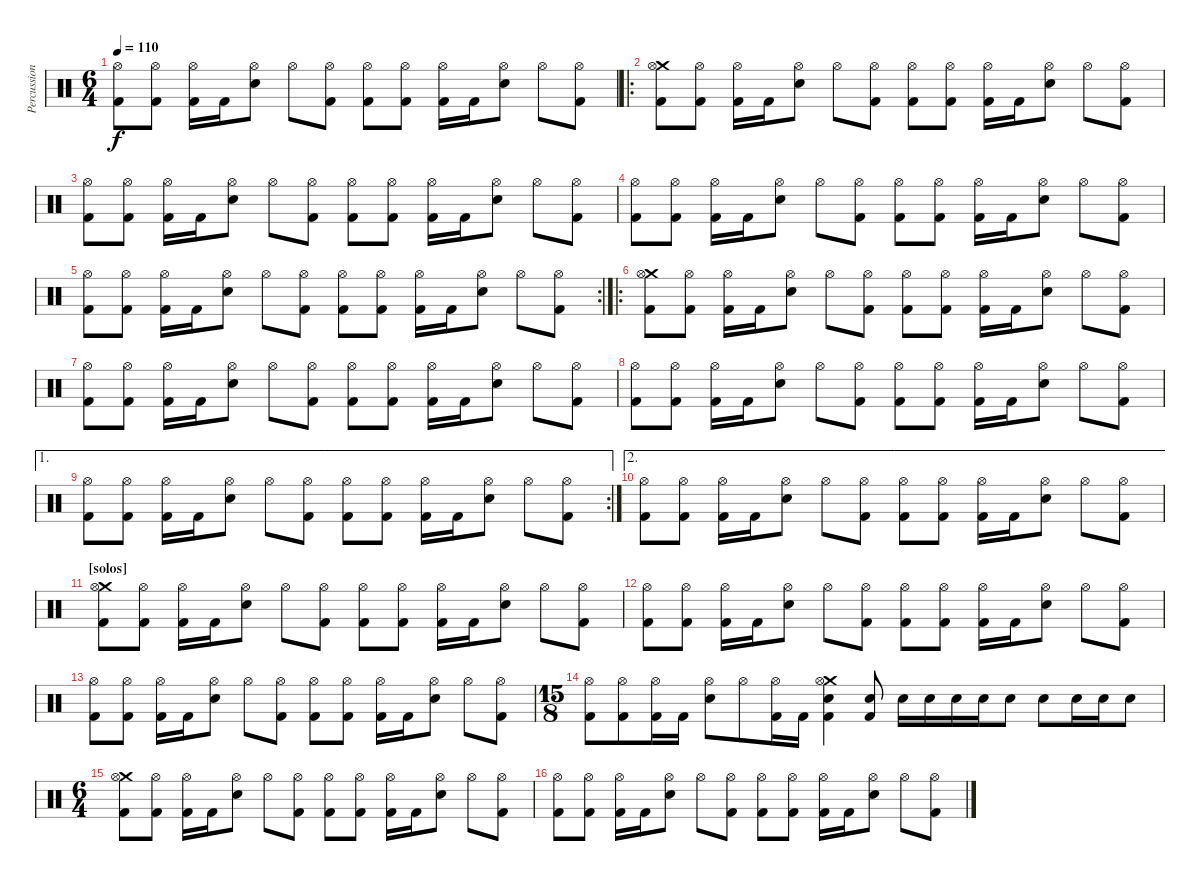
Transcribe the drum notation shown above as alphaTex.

\track ("Percussion" "Percussion") {instrument percussion}
\staff {score}
\articulation defaults
\ts (6 4)
\tempo 110
\clef neutral
\ks c
("Hi-Hat (open)" "Kick (hit) 2").8{dy f} ("Hi-Hat (open)" "Kick (hit) 2").8 ("Hi-Hat (open)" "Kick (hit) 2").16 "Kick (hit) 2".16 ("Hi-Hat (open)" "Electric Snare (hit)").8 "Hi-Hat (open)".8 ("Hi-Hat (open)" "Kick (hit) 2").8 ("Hi-Hat (open)" "Kick (hit) 2").8 ("Hi-Hat (open)" "Kick (hit) 2").8 ("Hi-Hat (open)" "Kick (hit) 2").16 "Kick (hit) 2".16 ("Hi-Hat (open)" "Electric Snare (hit)").8 "Hi-Hat (open)".8 ("Hi-Hat (open)" "Kick (hit) 2").8 |
\ro
("Crash medium (hit)" "Hi-Hat (open)" "Kick (hit) 2").8 ("Hi-Hat (open)" "Kick (hit) 2").8 ("Hi-Hat (open)" "Kick (hit) 2").16 "Kick (hit) 2".16 ("Hi-Hat (open)" "Electric Snare (hit)").8 "Hi-Hat (open)".8 ("Hi-Hat (open)" "Kick (hit) 2").8 ("Hi-Hat (open)" "Kick (hit) 2").8 ("Hi-Hat (open)" "Kick (hit) 2").8 ("Hi-Hat (open)" "Kick (hit) 2").16 "Kick (hit) 2".16 ("Hi-Hat (open)" "Electric Snare (hit)").8 "Hi-Hat (open)".8 ("Hi-Hat (open)" "Kick (hit) 2").8 |
("Hi-Hat (open)" "Kick (hit) 2").8 ("Hi-Hat (open)" "Kick (hit) 2").8 ("Hi-Hat (open)" "Kick (hit) 2").16 "Kick (hit) 2".16 ("Hi-Hat (open)" "Electric Snare (hit)").8 "Hi-Hat (open)".8 ("Hi-Hat (open)" "Kick (hit) 2").8 ("Hi-Hat (open)" "Kick (hit) 2").8 ("Hi-Hat (open)" "Kick (hit) 2").8 ("Hi-Hat (open)" "Kick (hit) 2").16 "Kick (hit) 2".16 ("Hi-Hat (open)" "Electric Snare (hit)").8 "Hi-Hat (open)".8 ("Hi-Hat (open)" "Kick (hit) 2").8 |
("Hi-Hat (open)" "Kick (hit) 2").8 ("Hi-Hat (open)" "Kick (hit) 2").8 ("Hi-Hat (open)" "Kick (hit) 2").16 "Kick (hit) 2".16 ("Hi-Hat (open)" "Electric Snare (hit)").8 "Hi-Hat (open)".8 ("Hi-Hat (open)" "Kick (hit) 2").8 ("Hi-Hat (open)" "Kick (hit) 2").8 ("Hi-Hat (open)" "Kick (hit) 2").8 ("Hi-Hat (open)" "Kick (hit) 2").16 "Kick (hit) 2".16 ("Hi-Hat (open)" "Electric Snare (hit)").8 "Hi-Hat (open)".8 ("Hi-Hat (open)" "Kick (hit) 2").8 |
\rc 2
("Hi-Hat (open)" "Kick (hit) 2").8 ("Hi-Hat (open)" "Kick (hit) 2").8 ("Hi-Hat (open)" "Kick (hit) 2").16 "Kick (hit) 2".16 ("Hi-Hat (open)" "Electric Snare (hit)").8 "Hi-Hat (open)".8 ("Hi-Hat (open)" "Kick (hit) 2").8 ("Hi-Hat (open)" "Kick (hit) 2").8 ("Hi-Hat (open)" "Kick (hit) 2").8 ("Hi-Hat (open)" "Kick (hit) 2").16 "Kick (hit) 2".16 ("Hi-Hat (open)" "Electric Snare (hit)").8 "Hi-Hat (open)".8 ("Hi-Hat (open)" "Kick (hit) 2").8 |
\ro
("Crash medium (hit)" "Hi-Hat (open)" "Kick (hit) 2").8 ("Hi-Hat (open)" "Kick (hit) 2").8 ("Hi-Hat (open)" "Kick (hit) 2").16 "Kick (hit) 2".16 ("Hi-Hat (open)" "Electric Snare (hit)").8 "Hi-Hat (open)".8 ("Hi-Hat (open)" "Kick (hit) 2").8 ("Hi-Hat (open)" "Kick (hit) 2").8 ("Hi-Hat (open)" "Kick (hit) 2").8 ("Hi-Hat (open)" "Kick (hit) 2").16 "Kick (hit) 2".16 ("Hi-Hat (open)" "Electric Snare (hit)").8 "Hi-Hat (open)".8 ("Hi-Hat (open)" "Kick (hit) 2").8 |
("Hi-Hat (open)" "Kick (hit) 2").8 ("Hi-Hat (open)" "Kick (hit) 2").8 ("Hi-Hat (open)" "Kick (hit) 2").16 "Kick (hit) 2".16 ("Hi-Hat (open)" "Electric Snare (hit)").8 "Hi-Hat (open)".8 ("Hi-Hat (open)" "Kick (hit) 2").8 ("Hi-Hat (open)" "Kick (hit) 2").8 ("Hi-Hat (open)" "Kick (hit) 2").8 ("Hi-Hat (open)" "Kick (hit) 2").16 "Kick (hit) 2".16 ("Hi-Hat (open)" "Electric Snare (hit)").8 "Hi-Hat (open)".8 ("Hi-Hat (open)" "Kick (hit) 2").8 |
("Hi-Hat (open)" "Kick (hit) 2").8 ("Hi-Hat (open)" "Kick (hit) 2").8 ("Hi-Hat (open)" "Kick (hit) 2").16 "Kick (hit) 2".16 ("Hi-Hat (open)" "Electric Snare (hit)").8 "Hi-Hat (open)".8 ("Hi-Hat (open)" "Kick (hit) 2").8 ("Hi-Hat (open)" "Kick (hit) 2").8 ("Hi-Hat (open)" "Kick (hit) 2").8 ("Hi-Hat (open)" "Kick (hit) 2").16 "Kick (hit) 2".16 ("Hi-Hat (open)" "Electric Snare (hit)").8 "Hi-Hat (open)".8 ("Hi-Hat (open)" "Kick (hit) 2").8 |
\ae 1
\rc 2
("Hi-Hat (open)" "Kick (hit) 2").8 ("Hi-Hat (open)" "Kick (hit) 2").8 ("Hi-Hat (open)" "Kick (hit) 2").16 "Kick (hit) 2".16 ("Hi-Hat (open)" "Electric Snare (hit)").8 "Hi-Hat (open)".8 ("Hi-Hat (open)" "Kick (hit) 2").8 ("Hi-Hat (open)" "Kick (hit) 2").8 ("Hi-Hat (open)" "Kick (hit) 2").8 ("Hi-Hat (open)" "Kick (hit) 2").16 "Kick (hit) 2".16 ("Hi-Hat (open)" "Electric Snare (hit)").8 "Hi-Hat (open)".8 ("Hi-Hat (open)" "Kick (hit) 2").8 |
\ae 2
("Hi-Hat (open)" "Kick (hit) 2").8 ("Hi-Hat (open)" "Kick (hit) 2").8 ("Hi-Hat (open)" "Kick (hit) 2").16 "Kick (hit) 2".16 ("Hi-Hat (open)" "Electric Snare (hit)").8 "Hi-Hat (open)".8 ("Hi-Hat (open)" "Kick (hit) 2").8 ("Hi-Hat (open)" "Kick (hit) 2").8 ("Hi-Hat (open)" "Kick (hit) 2").8 ("Hi-Hat (open)" "Kick (hit) 2").16 "Kick (hit) 2".16 ("Hi-Hat (open)" "Electric Snare (hit)").8 "Hi-Hat (open)".8 ("Hi-Hat (open)" "Kick (hit) 2").8 |
\section ("" "[solos]")
("Crash medium (hit)" "Hi-Hat (open)" "Kick (hit) 2").8 ("Hi-Hat (open)" "Kick (hit) 2").8 ("Hi-Hat (open)" "Kick (hit) 2").16 "Kick (hit) 2".16 ("Hi-Hat (open)" "Electric Snare (hit)").8 "Hi-Hat (open)".8 ("Hi-Hat (open)" "Kick (hit) 2").8 ("Hi-Hat (open)" "Kick (hit) 2").8 ("Hi-Hat (open)" "Kick (hit) 2").8 ("Hi-Hat (open)" "Kick (hit) 2").16 "Kick (hit) 2".16 ("Hi-Hat (open)" "Electric Snare (hit)").8 "Hi-Hat (open)".8 ("Hi-Hat (open)" "Kick (hit) 2").8 |
("Hi-Hat (open)" "Kick (hit) 2").8 ("Hi-Hat (open)" "Kick (hit) 2").8 ("Hi-Hat (open)" "Kick (hit) 2").16 "Kick (hit) 2".16 ("Hi-Hat (open)" "Electric Snare (hit)").8 "Hi-Hat (open)".8 ("Hi-Hat (open)" "Kick (hit) 2").8 ("Hi-Hat (open)" "Kick (hit) 2").8 ("Hi-Hat (open)" "Kick (hit) 2").8 ("Hi-Hat (open)" "Kick (hit) 2").16 "Kick (hit) 2".16 ("Hi-Hat (open)" "Electric Snare (hit)").8 "Hi-Hat (open)".8 ("Hi-Hat (open)" "Kick (hit) 2").8 |
("Hi-Hat (open)" "Kick (hit) 2").8 ("Hi-Hat (open)" "Kick (hit) 2").8 ("Hi-Hat (open)" "Kick (hit) 2").16 "Kick (hit) 2".16 ("Hi-Hat (open)" "Electric Snare (hit)").8 "Hi-Hat (open)".8 ("Hi-Hat (open)" "Kick (hit) 2").8 ("Hi-Hat (open)" "Kick (hit) 2").8 ("Hi-Hat (open)" "Kick (hit) 2").8 ("Hi-Hat (open)" "Kick (hit) 2").16 "Kick (hit) 2".16 ("Hi-Hat (open)" "Electric Snare (hit)").8 "Hi-Hat (open)".8 ("Hi-Hat (open)" "Kick (hit) 2").8 |
\ts (15 8)
("Hi-Hat (open)" "Kick (hit) 2").8 ("Hi-Hat (open)" "Kick (hit) 2").8 ("Hi-Hat (open)" "Kick (hit) 2").16 "Kick (hit) 2".16 ("Hi-Hat (open)" "Electric Snare (hit)").8 "Hi-Hat (open)".8 ("Hi-Hat (open)" "Kick (hit) 2").16 "Kick (hit) 2".16 ("Crash medium (hit)" "Hi-Hat (open)" "Electric Snare (hit)" "Kick (hit) 2").4 ("Electric Snare (hit)" "Kick (hit) 2").8 "Electric Snare (hit)".16 "Electric Snare (hit)".16 "Electric Snare (hit)".16 "Electric Snare (hit)".16 "Electric Snare (hit)".8 "Electric Snare (hit)".8 "Electric Snare (hit)".16 "Electric Snare (hit)".16 "Electric Snare (hit)".8 |
\ts (6 4)
("Crash medium (hit)" "Hi-Hat (open)" "Kick (hit) 2").8 ("Hi-Hat (open)" "Kick (hit) 2").8 ("Hi-Hat (open)" "Kick (hit) 2").16 "Kick (hit) 2".16 ("Hi-Hat (open)" "Electric Snare (hit)").8 "Hi-Hat (open)".8 ("Hi-Hat (open)" "Kick (hit) 2").8 ("Hi-Hat (open)" "Kick (hit) 2").8 ("Hi-Hat (open)" "Kick (hit) 2").8 ("Hi-Hat (open)" "Kick (hit) 2").16 "Kick (hit) 2".16 ("Hi-Hat (open)" "Electric Snare (hit)").8 "Hi-Hat (open)".8 ("Hi-Hat (open)" "Kick (hit) 2").8 |
("Hi-Hat (open)" "Kick (hit) 2").8 ("Hi-Hat (open)" "Kick (hit) 2").8 ("Hi-Hat (open)" "Kick (hit) 2").16 "Kick (hit) 2".16 ("Hi-Hat (open)" "Electric Snare (hit)").8 "Hi-Hat (open)".8 ("Hi-Hat (open)" "Kick (hit) 2").8 ("Hi-Hat (open)" "Kick (hit) 2").8 ("Hi-Hat (open)" "Kick (hit) 2").8 ("Hi-Hat (open)" "Kick (hit) 2").16 "Kick (hit) 2".16 ("Hi-Hat (open)" "Electric Snare (hit)").8 "Hi-Hat (open)".8 ("Hi-Hat (open)" "Kick (hit) 2").8
